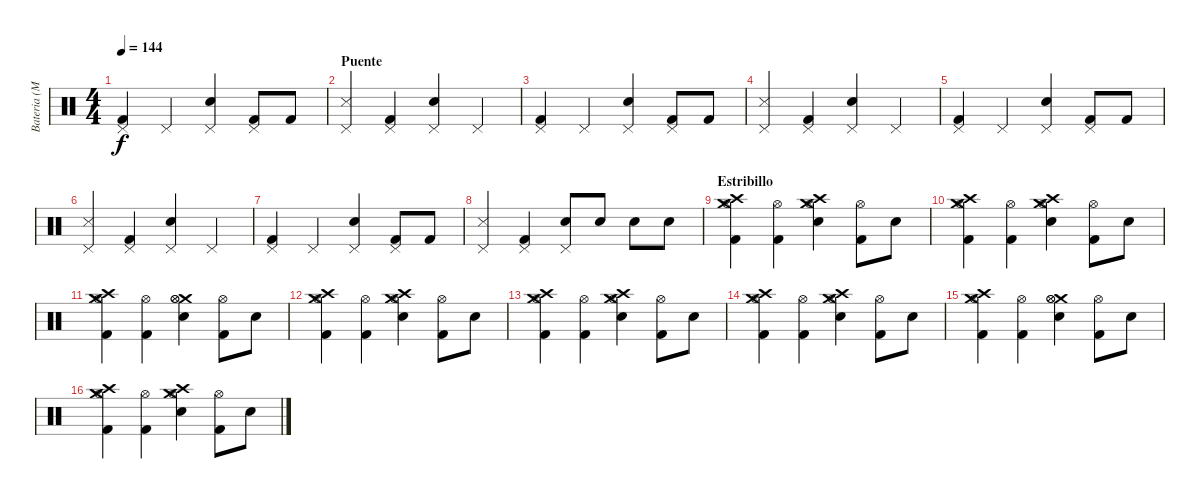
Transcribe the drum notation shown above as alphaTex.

\track ("Bateria (Matt)" "Bateria (M") {instrument percussion}
\staff {score}
\articulation defaults
\ts (4 4)
\tempo 144
\clef neutral
\ks c
("Pedal Hi-Hat (hit)" "Kick (hit) 2").4{dy f} "Pedal Hi-Hat (hit)".4 ("Pedal Hi-Hat (hit)" "Snare (hit) 2").4 ("Pedal Hi-Hat (hit)" "Kick (hit) 2").8 "Kick (hit) 2".8 |
\section ("" "Puente")
("Pedal Hi-Hat (hit)" "Snare (side stick) 3").4 ("Pedal Hi-Hat (hit)" "Kick (hit) 2").4 ("Pedal Hi-Hat (hit)" "Snare (hit) 2").4 "Pedal Hi-Hat (hit)".4 |
("Pedal Hi-Hat (hit)" "Kick (hit) 2").4 "Pedal Hi-Hat (hit)".4 ("Pedal Hi-Hat (hit)" "Snare (hit) 2").4 ("Pedal Hi-Hat (hit)" "Kick (hit) 2").8 "Kick (hit) 2".8 |
("Pedal Hi-Hat (hit)" "Snare (side stick) 3").4 ("Pedal Hi-Hat (hit)" "Kick (hit) 2").4 ("Pedal Hi-Hat (hit)" "Snare (hit) 2").4 "Pedal Hi-Hat (hit)".4 |
("Pedal Hi-Hat (hit)" "Kick (hit) 2").4 "Pedal Hi-Hat (hit)".4 ("Pedal Hi-Hat (hit)" "Snare (hit) 2").4 ("Pedal Hi-Hat (hit)" "Kick (hit) 2").8 "Kick (hit) 2".8 |
("Pedal Hi-Hat (hit)" "Snare (side stick) 3").4 ("Pedal Hi-Hat (hit)" "Kick (hit) 2").4 ("Pedal Hi-Hat (hit)" "Snare (hit) 2").4 "Pedal Hi-Hat (hit)".4 |
("Pedal Hi-Hat (hit)" "Kick (hit) 2").4 "Pedal Hi-Hat (hit)".4 ("Pedal Hi-Hat (hit)" "Snare (hit) 2").4 ("Pedal Hi-Hat (hit)" "Kick (hit) 2").8 "Kick (hit) 2".8 |
("Pedal Hi-Hat (hit)" "Snare (side stick) 3").4 ("Pedal Hi-Hat (hit)" "Kick (hit) 2").4 ("Pedal Hi-Hat (hit)" "Snare (hit) 2").8 "Snare (hit) 2".8 "Snare (hit) 2".8 "Snare (hit) 2".8 |
\section ("" "Estribillo")
("Crash medium (hit)" "Crash high (hit)" "Hi-Hat (open)" "Kick (hit) 2").4 ("Hi-Hat (open)" "Kick (hit) 2").4 ("Crash medium (hit)" "Crash high (hit)" "Hi-Hat (open)" "Snare (hit) 2").4 ("Hi-Hat (open)" "Kick (hit) 2").8 "Snare (hit) 2".8 |
("Crash medium (hit)" "Crash high (hit)" "Hi-Hat (open)" "Kick (hit) 2").4 ("Hi-Hat (open)" "Kick (hit) 2").4 ("Crash medium (hit)" "Crash high (hit)" "Hi-Hat (open)" "Snare (hit) 2").4 ("Hi-Hat (open)" "Kick (hit) 2").8 "Snare (hit) 2".8 |
("Crash medium (hit)" "Crash high (hit)" "Hi-Hat (open)" "Kick (hit) 2").4 ("Hi-Hat (open)" "Kick (hit) 2").4 ("Crash medium (hit)" "Hi-Hat (open)" "Hi-Hat (open)" "Snare (hit) 2").4 ("Hi-Hat (open)" "Kick (hit) 2").8 "Snare (hit) 2".8 |
("Crash medium (hit)" "Crash high (hit)" "Hi-Hat (open)" "Kick (hit) 2").4 ("Hi-Hat (open)" "Kick (hit) 2").4 ("Crash medium (hit)" "Crash high (hit)" "Hi-Hat (open)" "Snare (hit) 2").4 ("Hi-Hat (open)" "Kick (hit) 2").8 "Snare (hit) 2".8 |
("Crash medium (hit)" "Crash high (hit)" "Hi-Hat (open)" "Kick (hit) 2").4 ("Hi-Hat (open)" "Kick (hit) 2").4 ("Crash medium (hit)" "Crash high (hit)" "Hi-Hat (open)" "Snare (hit) 2").4 ("Hi-Hat (open)" "Kick (hit) 2").8 "Snare (hit) 2".8 |
("Crash medium (hit)" "Crash high (hit)" "Hi-Hat (open)" "Kick (hit) 2").4 ("Hi-Hat (open)" "Kick (hit) 2").4 ("Crash medium (hit)" "Crash high (hit)" "Hi-Hat (open)" "Snare (hit) 2").4 ("Hi-Hat (open)" "Kick (hit) 2").8 "Snare (hit) 2".8 |
("Crash medium (hit)" "Crash high (hit)" "Hi-Hat (open)" "Kick (hit) 2").4 ("Hi-Hat (open)" "Kick (hit) 2").4 ("Crash medium (hit)" "Hi-Hat (open)" "Hi-Hat (open)" "Snare (hit) 2").4 ("Hi-Hat (open)" "Kick (hit) 2").8 "Snare (hit) 2".8 |
("Crash medium (hit)" "Crash high (hit)" "Hi-Hat (open)" "Kick (hit) 2").4 ("Hi-Hat (open)" "Kick (hit) 2").4 ("Crash medium (hit)" "Crash high (hit)" "Hi-Hat (open)" "Snare (hit) 2").4 ("Hi-Hat (open)" "Kick (hit) 2").8 "Snare (hit) 2".8
